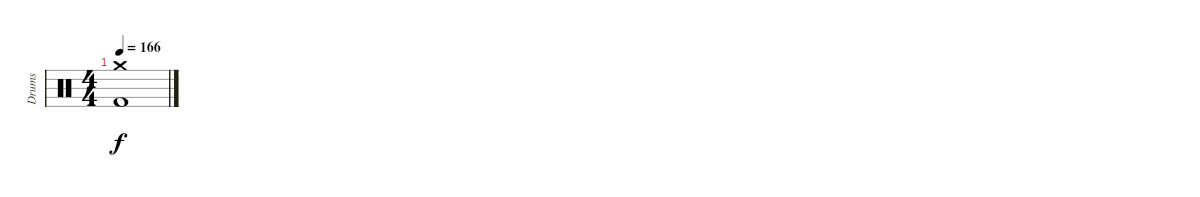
\track ("Drums" "Drums") {instrument percussion}
\staff {score}
\articulation defaults
\ts (4 4)
\tempo 166
\clef neutral
\ks c
("Kick (hit) 2" "Crash medium (hit)").1{dy f}
